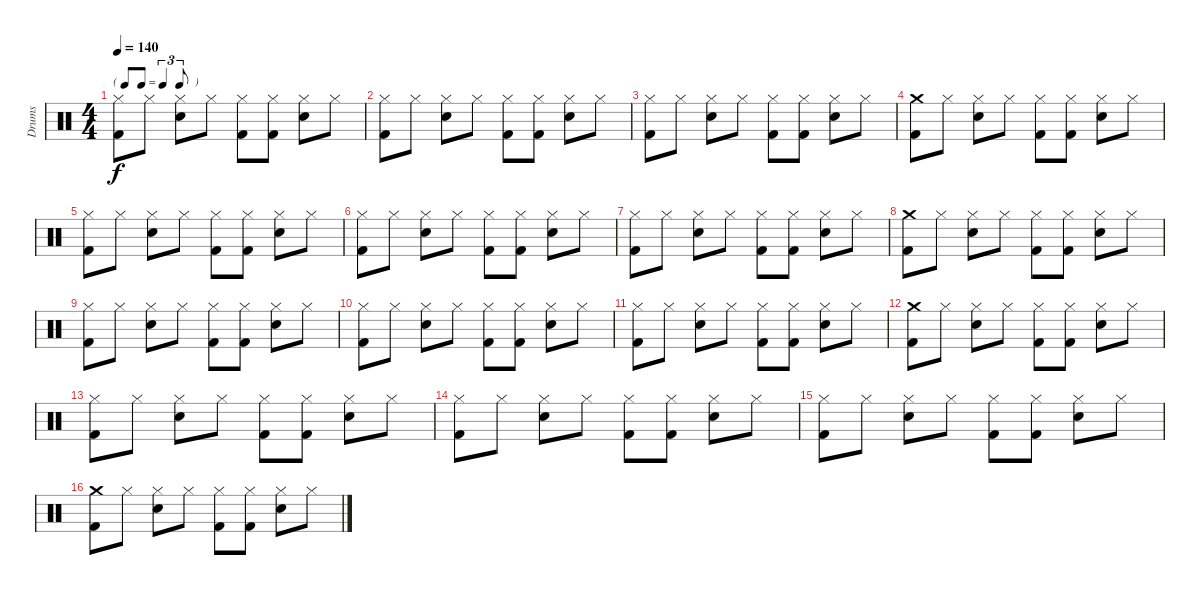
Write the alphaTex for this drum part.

\track ("Drums" "Drums") {instrument percussion}
\staff {score}
\articulation defaults
\ts (4 4)
\tf triplet8th
\tempo 140
\clef neutral
\ks c
("Hi-Hat (closed)" "Kick (hit) 2").8{dy f} "Hi-Hat (closed)".8 ("Hi-Hat (closed)" "Electric Snare (hit)").8 "Hi-Hat (closed)".8 ("Hi-Hat (closed)" "Kick (hit) 2").8 ("Hi-Hat (closed)" "Kick (hit) 2").8 ("Hi-Hat (closed)" "Electric Snare (hit)").8 "Hi-Hat (closed)".8 |
("Hi-Hat (closed)" "Kick (hit) 2").8 "Hi-Hat (closed)".8 ("Hi-Hat (closed)" "Electric Snare (hit)").8 "Hi-Hat (closed)".8 ("Hi-Hat (closed)" "Kick (hit) 2").8 ("Hi-Hat (closed)" "Kick (hit) 2").8 ("Hi-Hat (closed)" "Electric Snare (hit)").8 "Hi-Hat (closed)".8 |
("Hi-Hat (closed)" "Kick (hit) 2").8 "Hi-Hat (closed)".8 ("Hi-Hat (closed)" "Electric Snare (hit)").8 "Hi-Hat (closed)".8 ("Hi-Hat (closed)" "Kick (hit) 2").8 ("Hi-Hat (closed)" "Kick (hit) 2").8 ("Hi-Hat (closed)" "Electric Snare (hit)").8 "Hi-Hat (closed)".8 |
("Crash medium (hit)" "Kick (hit) 2").8 "Hi-Hat (closed)".8 ("Hi-Hat (closed)" "Electric Snare (hit)").8 "Hi-Hat (closed)".8 ("Hi-Hat (closed)" "Kick (hit) 2").8 ("Hi-Hat (closed)" "Kick (hit) 2").8 ("Hi-Hat (closed)" "Electric Snare (hit)").8 "Hi-Hat (closed)".8 |
("Hi-Hat (closed)" "Kick (hit) 2").8 "Hi-Hat (closed)".8 ("Hi-Hat (closed)" "Electric Snare (hit)").8 "Hi-Hat (closed)".8 ("Hi-Hat (closed)" "Kick (hit) 2").8 ("Hi-Hat (closed)" "Kick (hit) 2").8 ("Hi-Hat (closed)" "Electric Snare (hit)").8 "Hi-Hat (closed)".8 |
("Hi-Hat (closed)" "Kick (hit) 2").8 "Hi-Hat (closed)".8 ("Hi-Hat (closed)" "Electric Snare (hit)").8 "Hi-Hat (closed)".8 ("Hi-Hat (closed)" "Kick (hit) 2").8 ("Hi-Hat (closed)" "Kick (hit) 2").8 ("Hi-Hat (closed)" "Electric Snare (hit)").8 "Hi-Hat (closed)".8 |
("Hi-Hat (closed)" "Kick (hit) 2").8 "Hi-Hat (closed)".8 ("Hi-Hat (closed)" "Electric Snare (hit)").8 "Hi-Hat (closed)".8 ("Hi-Hat (closed)" "Kick (hit) 2").8 ("Hi-Hat (closed)" "Kick (hit) 2").8 ("Hi-Hat (closed)" "Electric Snare (hit)").8 "Hi-Hat (closed)".8 |
("Crash medium (hit)" "Kick (hit) 2").8 "Hi-Hat (closed)".8 ("Hi-Hat (closed)" "Electric Snare (hit)").8 "Hi-Hat (closed)".8 ("Hi-Hat (closed)" "Kick (hit) 2").8 ("Hi-Hat (closed)" "Kick (hit) 2").8 ("Hi-Hat (closed)" "Electric Snare (hit)").8 "Hi-Hat (closed)".8 |
("Hi-Hat (closed)" "Kick (hit) 2").8 "Hi-Hat (closed)".8 ("Hi-Hat (closed)" "Electric Snare (hit)").8 "Hi-Hat (closed)".8 ("Hi-Hat (closed)" "Kick (hit) 2").8 ("Hi-Hat (closed)" "Kick (hit) 2").8 ("Hi-Hat (closed)" "Electric Snare (hit)").8 "Hi-Hat (closed)".8 |
("Hi-Hat (closed)" "Kick (hit) 2").8 "Hi-Hat (closed)".8 ("Hi-Hat (closed)" "Electric Snare (hit)").8 "Hi-Hat (closed)".8 ("Hi-Hat (closed)" "Kick (hit) 2").8 ("Hi-Hat (closed)" "Kick (hit) 2").8 ("Hi-Hat (closed)" "Electric Snare (hit)").8 "Hi-Hat (closed)".8 |
("Hi-Hat (closed)" "Kick (hit) 2").8 "Hi-Hat (closed)".8 ("Hi-Hat (closed)" "Electric Snare (hit)").8 "Hi-Hat (closed)".8 ("Hi-Hat (closed)" "Kick (hit) 2").8 ("Hi-Hat (closed)" "Kick (hit) 2").8 ("Hi-Hat (closed)" "Electric Snare (hit)").8 "Hi-Hat (closed)".8 |
("Crash medium (hit)" "Kick (hit) 2").8{volume 12} "Hi-Hat (closed)".8 ("Hi-Hat (closed)" "Electric Snare (hit)").8 "Hi-Hat (closed)".8 ("Hi-Hat (closed)" "Kick (hit) 2").8 ("Hi-Hat (closed)" "Kick (hit) 2").8 ("Hi-Hat (closed)" "Electric Snare (hit)").8 "Hi-Hat (closed)".8 |
("Hi-Hat (closed)" "Kick (hit) 2").8 "Hi-Hat (closed)".8 ("Hi-Hat (closed)" "Electric Snare (hit)").8 "Hi-Hat (closed)".8 ("Hi-Hat (closed)" "Kick (hit) 2").8 ("Hi-Hat (closed)" "Kick (hit) 2").8 ("Hi-Hat (closed)" "Electric Snare (hit)").8 "Hi-Hat (closed)".8 |
("Hi-Hat (closed)" "Kick (hit) 2").8{volume 8} "Hi-Hat (closed)".8 ("Hi-Hat (closed)" "Electric Snare (hit)").8 "Hi-Hat (closed)".8 ("Hi-Hat (closed)" "Kick (hit) 2").8 ("Hi-Hat (closed)" "Kick (hit) 2").8 ("Hi-Hat (closed)" "Electric Snare (hit)").8 "Hi-Hat (closed)".8 |
("Hi-Hat (closed)" "Kick (hit) 2").8 "Hi-Hat (closed)".8 ("Hi-Hat (closed)" "Electric Snare (hit)").8 "Hi-Hat (closed)".8 ("Hi-Hat (closed)" "Kick (hit) 2").8 ("Hi-Hat (closed)" "Kick (hit) 2").8 ("Hi-Hat (closed)" "Electric Snare (hit)").8 "Hi-Hat (closed)".8 |
("Crash medium (hit)" "Kick (hit) 2").8{volume 4} "Hi-Hat (closed)".8 ("Hi-Hat (closed)" "Electric Snare (hit)").8 "Hi-Hat (closed)".8 ("Hi-Hat (closed)" "Kick (hit) 2").8 ("Hi-Hat (closed)" "Kick (hit) 2").8 ("Hi-Hat (closed)" "Electric Snare (hit)").8 "Hi-Hat (closed)".8
